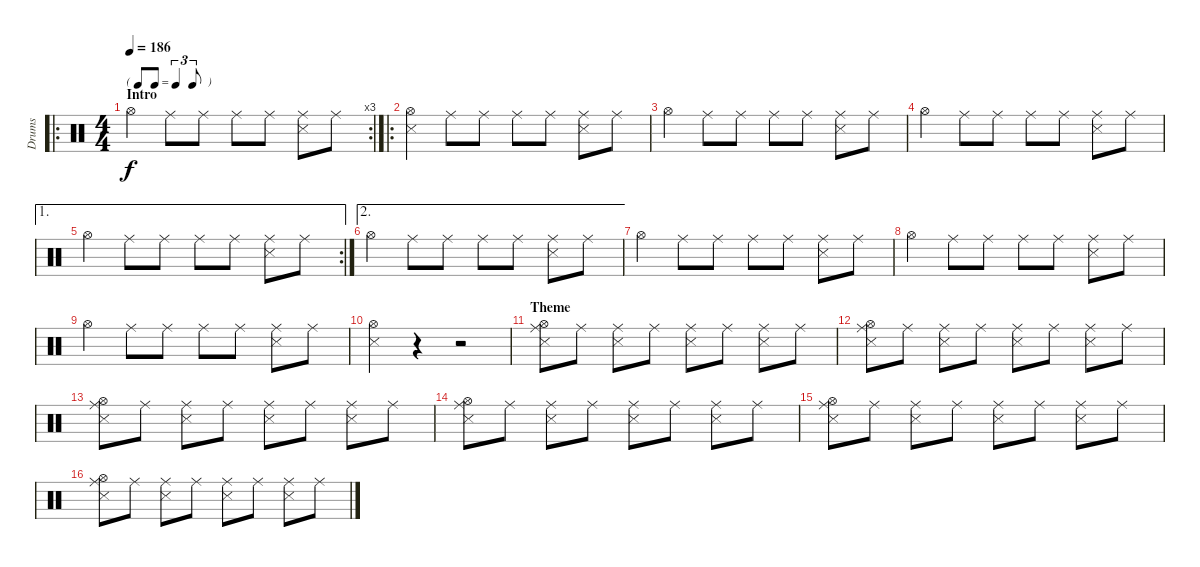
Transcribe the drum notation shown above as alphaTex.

\track ("Drums" "Drums") {instrument percussion}
\staff {score}
\articulation defaults
\ro
\rc 3
\ts (4 4)
\tf triplet8th
\section ("" "Intro")
\tempo 186
\clef neutral
\ks c "Hi-Hat (open)".4{dy f} "Ride (middle)".8 "Ride (middle)".8 "Ride (middle)".8 "Ride (middle)".8
("Ride (middle)" "Snare (side stick) 3").8 "Ride (middle)".8 |
\ro
("Hi-Hat (open)" "Snare (side stick) 3").4 "Ride (middle)".8 "Ride (middle)".8 "Ride (middle)".8 "Ride (middle)".8 ("Ride (middle)" "Snare (side stick) 3").8 "Ride (middle)".8 |
"Hi-Hat (open)".4 "Ride (middle)".8 "Ride (middle)".8 "Ride (middle)".8 "Ride (middle)".8 ("Ride (middle)" "Snare (side stick) 3").8 "Ride (middle)".8 |
"Hi-Hat (open)".4 "Ride (middle)".8 "Ride (middle)".8 "Ride (middle)".8 "Ride (middle)".8 ("Ride (middle)" "Snare (side stick) 3").8 "Ride (middle)".8 |
\ae 1
\rc 2 "Hi-Hat (open)".4 "Ride (middle)".8 "Ride (middle)".8 "Ride (middle)".8 "Ride (middle)".8
("Ride (middle)" "Snare (side stick) 3").8 "Ride (middle)".8 |
\ae 2 "Hi-Hat (open)".4 "Ride (middle)".8 "Ride (middle)".8 "Ride (middle)".8 "Ride (middle)".8
("Ride (middle)" "Snare (side stick) 3").8 "Ride (middle)".8 |
"Hi-Hat (open)".4 "Ride (middle)".8 "Ride (middle)".8 "Ride (middle)".8 "Ride (middle)".8 ("Ride (middle)" "Snare (side stick) 3").8 "Ride (middle)".8 |
"Hi-Hat (open)".4 "Ride (middle)".8 "Ride (middle)".8 "Ride (middle)".8 "Ride (middle)".8 ("Ride (middle)" "Snare (side stick) 3").8 "Ride (middle)".8 |
"Hi-Hat (open)".4 "Ride (middle)".8 "Ride (middle)".8 "Ride (middle)".8 "Ride (middle)".8 ("Ride (middle)" "Snare (side stick) 3").8 "Ride (middle)".8 |
("Hi-Hat (open)" "Snare (side stick) 3").4 r.4 r.2 |
\section ("" "Theme")
("Hi-Hat (open)" "Ride (middle)" "Snare (side stick) 3").8 "Ride (middle)".8 ("Ride (middle)" "Snare (side stick) 3").8 "Ride (middle)".8 ("Ride (middle)" "Snare (side stick) 3").8 "Ride (middle)".8 ("Ride (middle)" "Snare (side stick) 3").8 "Ride (middle)".8 |
("Hi-Hat (open)" "Ride (middle)" "Snare (side stick) 3").8 "Ride (middle)".8 ("Ride (middle)" "Snare (side stick) 3").8 "Ride (middle)".8 ("Ride (middle)" "Snare (side stick) 3").8 "Ride (middle)".8 ("Ride (middle)" "Snare (side stick) 3").8 "Ride (middle)".8 |
("Hi-Hat (open)" "Ride (middle)" "Snare (side stick) 3").8 "Ride (middle)".8 ("Ride (middle)" "Snare (side stick) 3").8 "Ride (middle)".8 ("Ride (middle)" "Snare (side stick) 3").8 "Ride (middle)".8 ("Ride (middle)" "Snare (side stick) 3").8 "Ride (middle)".8 |
("Hi-Hat (open)" "Ride (middle)" "Snare (side stick) 3").8 "Ride (middle)".8 ("Ride (middle)" "Snare (side stick) 3").8 "Ride (middle)".8 ("Ride (middle)" "Snare (side stick) 3").8 "Ride (middle)".8 ("Ride (middle)" "Snare (side stick) 3").8 "Ride (middle)".8 |
("Hi-Hat (open)" "Ride (middle)" "Snare (side stick) 3").8 "Ride (middle)".8 ("Ride (middle)" "Snare (side stick) 3").8 "Ride (middle)".8 ("Ride (middle)" "Snare (side stick) 3").8 "Ride (middle)".8 ("Ride (middle)" "Snare (side stick) 3").8 "Ride (middle)".8 |
("Hi-Hat (open)" "Ride (middle)" "Snare (side stick) 3").8 "Ride (middle)".8 ("Ride (middle)" "Snare (side stick) 3").8 "Ride (middle)".8 ("Ride (middle)" "Snare (side stick) 3").8 "Ride (middle)".8 ("Ride (middle)" "Snare (side stick) 3").8 "Ride (middle)".8
